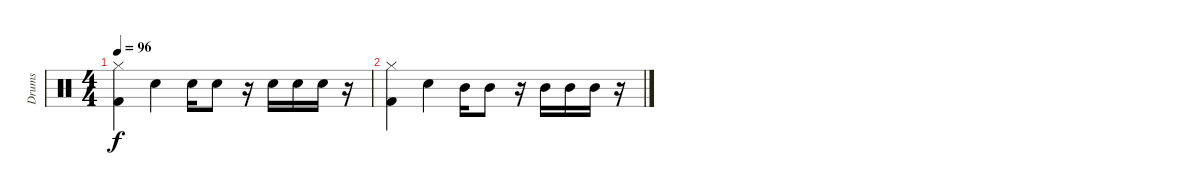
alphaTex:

\track ("Drums" "Drums") {instrument percussion}
\staff {score}
\articulation defaults
\ts (4 4)
\tempo 96
\clef neutral
\ks c
("Hi-Hat (closed)" "Kick (hit) 2").4{dy f} "Snare (hit) 2".4 "Snare (hit) 2".16 "Snare (hit) 2".8 r.16 "Snare (hit) 2".16 "Snare (hit) 2".16 "Snare (hit) 2".16 r.16 |
("Hi-Hat (closed)" "Kick (hit) 2").4 "Snare (hit) 2".4 "Mid Tom (hit)".16 "Mid Tom (hit)".8 r.16 "Mid Tom (hit)".16 "Mid Tom (hit)".16 "Mid Tom (hit)".16 r.16
